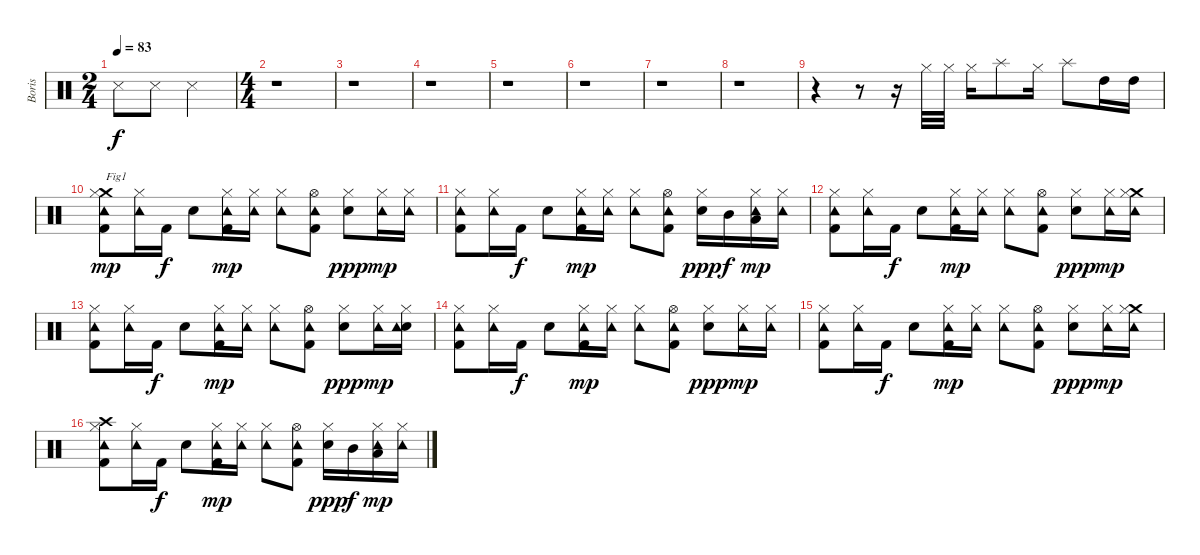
\track ("Boris" "Boris") {instrument percussion}
\staff {score}
\articulation defaults
\ts (2 4)
\tempo 83
\clef neutral
\ks c "Metronome (hit)".8{dy f} "Metronome (hit)".8 "Metronome (hit)".4
|
\ts (4 4)
r.1 |
r.1 |
r.1 |
r.1 |
r.1 |
r.1 |
r.1 |
r.4 r.8 r.16 "Hi-Hat (closed)".32 "Hi-Hat (closed)".32 "Hi-Hat (closed)".16 "Splash (hit)".8 "Hi-Hat (closed)".16 "Splash (hit)".8 "High Tom (hit)".16 "High Tom (hit)".16 |
("Kick (hit) 2" "Crash medium (hit)" "Tambourine (hit)" "Hi-Hat (closed)").8{txt "Fig1" dy mp} ("Tambourine (hit)" "Hi-Hat (closed)").16 "Kick (hit) 2".16{dy f} "Electric Snare (hit)".8 ("Kick (hit) 2" "Tambourine (hit)" "Hi-Hat (closed)").16{dy mp} ("Tambourine (hit)" "Hi-Hat (closed)").16 ("Tambourine (hit)" "Hi-Hat (closed)").8 ("Kick (hit) 2" "Tambourine (hit)" "Hi-Hat (open)").8 ("Electric Snare (hit)" "Hi-Hat (closed)").8{dy ppp} ("Tambourine (hit)" "Hi-Hat (closed)").16{dy mp} ("Tambourine (hit)" "Hi-Hat (closed)").16 |
("Kick (hit) 2" "Tambourine (hit)" "Hi-Hat (closed)").8 ("Tambourine (hit)" "Hi-Hat (closed)").16 "Kick (hit) 2".16{dy f} "Electric Snare (hit)".8 ("Kick (hit) 2" "Tambourine (hit)" "Hi-Hat (closed)").16{dy mp} ("Tambourine (hit)" "Hi-Hat (closed)").16 ("Tambourine (hit)" "Hi-Hat (closed)").8 ("Kick (hit) 2" "Tambourine (hit)" "Hi-Hat (open)").8 ("Electric Snare (hit)" "Hi-Hat (closed)").16{dy ppp} "Mid Tom (hit)".16{dy f} ("Low Tom (hit)" "Tambourine (hit)" "Hi-Hat (closed)").16{dy mp} ("Tambourine (hit)" "Hi-Hat (closed)").16 |
("Kick (hit) 2" "Tambourine (hit)" "Hi-Hat (closed)").8 ("Tambourine (hit)" "Hi-Hat (closed)").16 "Kick (hit) 2".16{dy f} "Electric Snare (hit)".8 ("Kick (hit) 2" "Tambourine (hit)" "Hi-Hat (closed)").16{dy mp} ("Tambourine (hit)" "Hi-Hat (closed)").16 ("Tambourine (hit)" "Hi-Hat (closed)").8 ("Kick (hit) 2" "Tambourine (hit)" "Hi-Hat (open)").8 ("Electric Snare (hit)" "Hi-Hat (closed)").8{dy ppp} ("Tambourine (hit)" "Hi-Hat (closed)").16{dy mp} ("Crash medium (hit)" "Tambourine (hit)" "Hi-Hat (closed)").16 |
("Kick (hit) 2" "Tambourine (hit)" "Hi-Hat (closed)").8 ("Tambourine (hit)" "Hi-Hat (closed)").16 "Kick (hit) 2".16{dy f} "Electric Snare (hit)".8 ("Kick (hit) 2" "Tambourine (hit)" "Hi-Hat (closed)").16{dy mp} ("Tambourine (hit)" "Hi-Hat (closed)").16 ("Tambourine (hit)" "Hi-Hat (closed)").8 ("Kick (hit) 2" "Tambourine (hit)" "Hi-Hat (open)").8 ("Electric Snare (hit)" "Hi-Hat (closed)").8{dy ppp} ("Tambourine (hit)" "Hi-Hat (closed)").16{dy mp} ("Electric Snare (hit)" "Tambourine (hit)" "Hi-Hat (closed)").16 |
("Kick (hit) 2" "Tambourine (hit)" "Hi-Hat (closed)").8 ("Tambourine (hit)" "Hi-Hat (closed)").16 "Kick (hit) 2".16{dy f} "Electric Snare (hit)".8 ("Kick (hit) 2" "Tambourine (hit)" "Hi-Hat (closed)").16{dy mp} ("Tambourine (hit)" "Hi-Hat (closed)").16 ("Tambourine (hit)" "Hi-Hat (closed)").8 ("Kick (hit) 2" "Tambourine (hit)" "Hi-Hat (open)").8 ("Electric Snare (hit)" "Hi-Hat (closed)").8{dy ppp} ("Tambourine (hit)" "Hi-Hat (closed)").16{dy mp} ("Tambourine (hit)" "Hi-Hat (closed)").16 |
("Kick (hit) 2" "Tambourine (hit)" "Hi-Hat (closed)").8 ("Tambourine (hit)" "Hi-Hat (closed)").16 "Kick (hit) 2".16{dy f} "Electric Snare (hit)".8 ("Kick (hit) 2" "Tambourine (hit)" "Hi-Hat (closed)").16{dy mp} ("Tambourine (hit)" "Hi-Hat (closed)").16 ("Tambourine (hit)" "Hi-Hat (closed)").8 ("Kick (hit) 2" "Tambourine (hit)" "Hi-Hat (open)").8 ("Electric Snare (hit)" "Hi-Hat (closed)").8{dy ppp} ("Tambourine (hit)" "Hi-Hat (closed)").16{dy mp} ("Crash medium (hit)" "Tambourine (hit)" "Hi-Hat (closed)").16 |
("Kick (hit) 2" "Crash high (hit)" "Tambourine (hit)" "Hi-Hat (closed)").8 ("Tambourine (hit)" "Hi-Hat (closed)").16 "Kick (hit) 2".16{dy f} "Electric Snare (hit)".8 ("Kick (hit) 2" "Tambourine (hit)" "Hi-Hat (closed)").16{dy mp} ("Tambourine (hit)" "Hi-Hat (closed)").16 ("Tambourine (hit)" "Hi-Hat (closed)").8 ("Kick (hit) 2" "Tambourine (hit)" "Hi-Hat (open)").8 ("Electric Snare (hit)" "Hi-Hat (closed)").16{dy ppp} "Mid Tom (hit)".16{dy f} ("Low Tom (hit)" "Tambourine (hit)" "Hi-Hat (closed)").16{dy mp} ("Tambourine (hit)" "Hi-Hat (closed)").16
